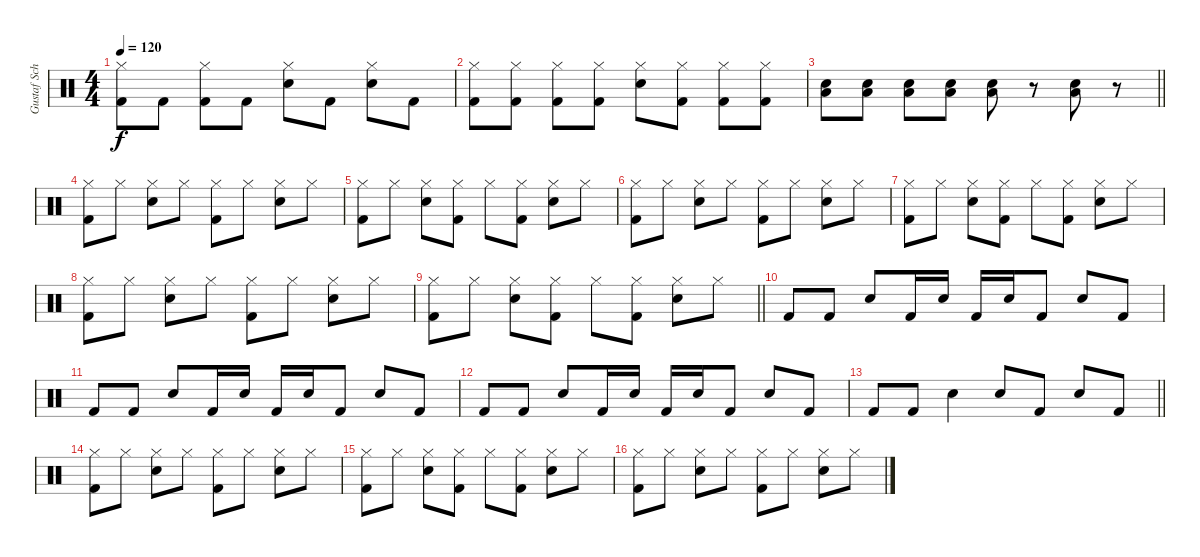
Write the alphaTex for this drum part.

\track ("Gustaf Schafer" "Gustaf Sch") {instrument percussion}
\staff {score}
\articulation defaults
\ts (4 4)
\tempo 120
\clef neutral
\ks c
("Hi-Hat (closed)" "Kick (hit) 2").8{dy f} "Kick (hit) 2".8 ("Hi-Hat (closed)" "Kick (hit) 2").8 "Kick (hit) 2".8 ("Hi-Hat (closed)" "Snare (hit) 2").8 "Kick (hit) 2".8 ("Hi-Hat (closed)" "Snare (hit) 2").8 "Kick (hit) 2".8 |
("Hi-Hat (closed)" "Kick (hit) 2").8 ("Hi-Hat (closed)" "Kick (hit) 2").8 ("Hi-Hat (closed)" "Kick (hit) 2").8 ("Hi-Hat (closed)" "Kick (hit) 2").8 ("Hi-Hat (closed)" "Snare (hit) 2").8 ("Hi-Hat (closed)" "Kick (hit) 2").8 ("Hi-Hat (closed)" "Kick (hit) 2").8 ("Hi-Hat (closed)" "Kick (hit) 2").8 |
\barLineRight lightlight
("Snare (hit) 2" "Low Tom (hit)").8 ("Snare (hit) 2" "Low Tom (hit)").8 ("Snare (hit) 2" "Low Tom (hit)").8 ("Snare (hit) 2" "Low Tom (hit)").8 ("Snare (hit) 2" "Low Tom (hit)").8 r.8 ("Snare (hit) 2" "Low Tom (hit)").8 r.8 |
\section ("" "")
("Hi-Hat (closed)" "Kick (hit) 2").8 "Hi-Hat (closed)".8 ("Hi-Hat (closed)" "Snare (hit) 2").8 "Hi-Hat (closed)".8 ("Hi-Hat (closed)" "Kick (hit) 2").8 "Hi-Hat (closed)".8 ("Hi-Hat (closed)" "Snare (hit) 2").8 "Hi-Hat (closed)".8 |
("Hi-Hat (closed)" "Kick (hit) 2").8 "Hi-Hat (closed)".8 ("Hi-Hat (closed)" "Snare (hit) 2").8 ("Hi-Hat (closed)" "Kick (hit) 2").8 "Hi-Hat (closed)".8 ("Hi-Hat (closed)" "Kick (hit) 2").8 ("Hi-Hat (closed)" "Snare (hit) 2").8 "Hi-Hat (closed)".8 |
("Hi-Hat (closed)" "Kick (hit) 2").8 "Hi-Hat (closed)".8 ("Hi-Hat (closed)" "Snare (hit) 2").8 "Hi-Hat (closed)".8 ("Hi-Hat (closed)" "Kick (hit) 2").8 "Hi-Hat (closed)".8 ("Hi-Hat (closed)" "Snare (hit) 2").8 "Hi-Hat (closed)".8 |
("Hi-Hat (closed)" "Kick (hit) 2").8 "Hi-Hat (closed)".8 ("Hi-Hat (closed)" "Snare (hit) 2").8 ("Hi-Hat (closed)" "Kick (hit) 2").8 "Hi-Hat (closed)".8 ("Hi-Hat (closed)" "Kick (hit) 2").8 ("Hi-Hat (closed)" "Snare (hit) 2").8 "Hi-Hat (closed)".8 |
("Hi-Hat (closed)" "Kick (hit) 2").8 "Hi-Hat (closed)".8 ("Hi-Hat (closed)" "Snare (hit) 2").8 "Hi-Hat (closed)".8 ("Hi-Hat (closed)" "Kick (hit) 2").8 "Hi-Hat (closed)".8 ("Hi-Hat (closed)" "Snare (hit) 2").8 "Hi-Hat (closed)".8 |
\barLineRight lightlight
("Hi-Hat (closed)" "Kick (hit) 2").8 "Hi-Hat (closed)".8 ("Hi-Hat (closed)" "Snare (hit) 2").8 ("Hi-Hat (closed)" "Kick (hit) 2").8 "Hi-Hat (closed)".8 ("Hi-Hat (closed)" "Kick (hit) 2").8 ("Hi-Hat (closed)" "Snare (hit) 2").8 "Hi-Hat (closed)".8 |
\section ("" "")
"Kick (hit) 2".8 "Kick (hit) 2".8 "Snare (hit) 2".8 "Kick (hit) 2".16 "Snare (hit) 2".16 "Kick (hit) 2".16 "Snare (hit) 2".16 "Kick (hit) 2".8 "Snare (hit) 2".8 "Kick (hit) 2".8 |
"Kick (hit) 2".8 "Kick (hit) 2".8 "Snare (hit) 2".8 "Kick (hit) 2".16 "Snare (hit) 2".16 "Kick (hit) 2".16 "Snare (hit) 2".16 "Kick (hit) 2".8 "Snare (hit) 2".8 "Kick (hit) 2".8 |
"Kick (hit) 2".8 "Kick (hit) 2".8 "Snare (hit) 2".8 "Kick (hit) 2".16 "Snare (hit) 2".16 "Kick (hit) 2".16 "Snare (hit) 2".16 "Kick (hit) 2".8 "Snare (hit) 2".8 "Kick (hit) 2".8 |
\barLineRight lightlight "Kick (hit) 2".8 "Kick (hit) 2".8 "Snare (hit) 2".4 "Snare (hit) 2".8 "Kick (hit) 2".8 "Snare (hit) 2".8 "Kick (hit) 2".8
|
\section ("" "")
("Hi-Hat (closed)" "Kick (hit) 2").8 "Hi-Hat (closed)".8 ("Hi-Hat (closed)" "Snare (hit) 2").8 "Hi-Hat (closed)".8 ("Hi-Hat (closed)" "Kick (hit) 2").8 "Hi-Hat (closed)".8 ("Hi-Hat (closed)" "Snare (hit) 2").8 "Hi-Hat (closed)".8 |
("Hi-Hat (closed)" "Kick (hit) 2").8 "Hi-Hat (closed)".8 ("Hi-Hat (closed)" "Snare (hit) 2").8 ("Hi-Hat (closed)" "Kick (hit) 2").8 "Hi-Hat (closed)".8 ("Hi-Hat (closed)" "Kick (hit) 2").8 ("Hi-Hat (closed)" "Snare (hit) 2").8 "Hi-Hat (closed)".8 |
("Hi-Hat (closed)" "Kick (hit) 2").8 "Hi-Hat (closed)".8 ("Hi-Hat (closed)" "Snare (hit) 2").8 "Hi-Hat (closed)".8 ("Hi-Hat (closed)" "Kick (hit) 2").8 "Hi-Hat (closed)".8 ("Hi-Hat (closed)" "Snare (hit) 2").8 "Hi-Hat (closed)".8
